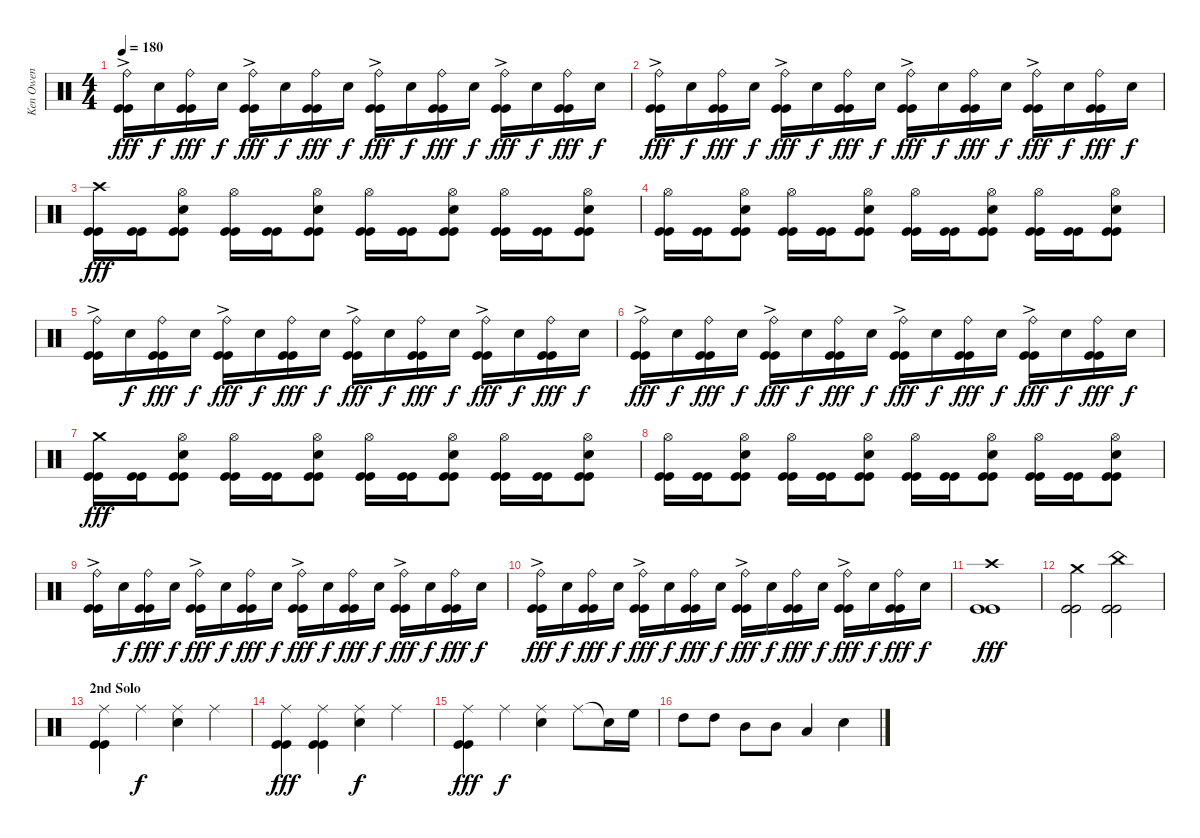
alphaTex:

\track ("Ken Owen" "Ken Owen") {instrument percussion}
\staff {score}
\articulation defaults
\ts (4 4)
\tempo 180
\clef neutral
\ks c
("Ride (bell)"{ac} "Kick (hit)" "Kick (hit)").16{dy fff} "Snare (hit) 2".16{dy f} ("Ride (bell)" "Kick (hit)" "Kick (hit)").16{dy fff} "Snare (hit) 2".16{dy f} ("Ride (bell)"{ac} "Kick (hit)" "Kick (hit)").16{dy fff} "Snare (hit) 2".16{dy f} ("Ride (bell)" "Kick (hit)" "Kick (hit)").16{dy fff} "Snare (hit) 2".16{dy f} ("Ride (bell)"{ac} "Kick (hit)" "Kick (hit)").16{dy fff} "Snare (hit) 2".16{dy f} ("Ride (bell)" "Kick (hit)" "Kick (hit)").16{dy fff} "Snare (hit) 2".16{dy f} ("Ride (bell)"{ac} "Kick (hit)" "Kick (hit)").16{dy fff} "Snare (hit) 2".16{dy f} ("Ride (bell)" "Kick (hit)" "Kick (hit)").16{dy fff} "Snare (hit) 2".16{dy f} |
("Ride (bell)"{ac} "Kick (hit)" "Kick (hit)").16{dy fff} "Snare (hit) 2".16{dy f} ("Ride (bell)" "Kick (hit)" "Kick (hit)").16{dy fff} "Snare (hit) 2".16{dy f} ("Ride (bell)"{ac} "Kick (hit)" "Kick (hit)").16{dy fff} "Snare (hit) 2".16{dy f} ("Ride (bell)" "Kick (hit)" "Kick (hit)").16{dy fff} "Snare (hit) 2".16{dy f} ("Ride (bell)"{ac} "Kick (hit)" "Kick (hit)").16{dy fff} "Snare (hit) 2".16{dy f} ("Ride (bell)" "Kick (hit)" "Kick (hit)").16{dy fff} "Snare (hit) 2".16{dy f} ("Ride (bell)"{ac} "Kick (hit)" "Kick (hit)").16{dy fff} "Snare (hit) 2".16{dy f} ("Ride (bell)" "Kick (hit)" "Kick (hit)").16{dy fff} "Snare (hit) 2".16{dy f} |
("Crash high (hit)" "Kick (hit)" "Kick (hit)").16{dy fff} ("Kick (hit)" "Kick (hit)").16 ("Hi-Hat (open)" "Snare (hit) 2" "Kick (hit)" "Kick (hit)").8 ("Hi-Hat (open)" "Kick (hit)" "Kick (hit)").16 ("Kick (hit)" "Kick (hit)").16 ("Hi-Hat (open)" "Snare (hit) 2" "Kick (hit)" "Kick (hit)").8 ("Hi-Hat (open)" "Kick (hit)" "Kick (hit)").16 ("Kick (hit)" "Kick (hit)").16 ("Hi-Hat (open)" "Snare (hit) 2" "Kick (hit)" "Kick (hit)").8 ("Hi-Hat (open)" "Kick (hit)" "Kick (hit)").16 ("Kick (hit)" "Kick (hit)").16 ("Hi-Hat (open)" "Snare (hit) 2" "Kick (hit)" "Kick (hit)").8 |
("Hi-Hat (open)" "Kick (hit)" "Kick (hit)").16 ("Kick (hit)" "Kick (hit)").16 ("Hi-Hat (open)" "Snare (hit) 2" "Kick (hit)" "Kick (hit)").8 ("Hi-Hat (open)" "Kick (hit)" "Kick (hit)").16 ("Kick (hit)" "Kick (hit)").16 ("Hi-Hat (open)" "Snare (hit) 2" "Kick (hit)" "Kick (hit)").8 ("Hi-Hat (open)" "Kick (hit)" "Kick (hit)").16 ("Kick (hit)" "Kick (hit)").16 ("Hi-Hat (open)" "Snare (hit) 2" "Kick (hit)" "Kick (hit)").8 ("Hi-Hat (open)" "Kick (hit)" "Kick (hit)").16 ("Kick (hit)" "Kick (hit)").16 ("Hi-Hat (open)" "Snare (hit) 2" "Kick (hit)" "Kick (hit)").8 |
("Ride (bell)"{ac} "Kick (hit)" "Kick (hit)").16 "Snare (hit) 2".16{dy f} ("Ride (bell)" "Kick (hit)" "Kick (hit)").16{dy fff} "Snare (hit) 2".16{dy f} ("Ride (bell)"{ac} "Kick (hit)" "Kick (hit)").16{dy fff} "Snare (hit) 2".16{dy f} ("Ride (bell)" "Kick (hit)" "Kick (hit)").16{dy fff} "Snare (hit) 2".16{dy f} ("Ride (bell)"{ac} "Kick (hit)" "Kick (hit)").16{dy fff} "Snare (hit) 2".16{dy f} ("Ride (bell)" "Kick (hit)" "Kick (hit)").16{dy fff} "Snare (hit) 2".16{dy f} ("Ride (bell)"{ac} "Kick (hit)" "Kick (hit)").16{dy fff} "Snare (hit) 2".16{dy f} ("Ride (bell)" "Kick (hit)" "Kick (hit)").16{dy fff} "Snare (hit) 2".16{dy f} |
("Ride (bell)"{ac} "Kick (hit)" "Kick (hit)").16{dy fff} "Snare (hit) 2".16{dy f} ("Ride (bell)" "Kick (hit)" "Kick (hit)").16{dy fff} "Snare (hit) 2".16{dy f} ("Ride (bell)"{ac} "Kick (hit)" "Kick (hit)").16{dy fff} "Snare (hit) 2".16{dy f} ("Ride (bell)" "Kick (hit)" "Kick (hit)").16{dy fff} "Snare (hit) 2".16{dy f} ("Ride (bell)"{ac} "Kick (hit)" "Kick (hit)").16{dy fff} "Snare (hit) 2".16{dy f} ("Ride (bell)" "Kick (hit)" "Kick (hit)").16{dy fff} "Snare (hit) 2".16{dy f} ("Ride (bell)"{ac} "Kick (hit)" "Kick (hit)").16{dy fff} "Snare (hit) 2".16{dy f} ("Ride (bell)" "Kick (hit)" "Kick (hit)").16{dy fff} "Snare (hit) 2".16{dy f} |
("Crash medium (hit)" "Kick (hit)" "Kick (hit)").16{dy fff} ("Kick (hit)" "Kick (hit)").16 ("Hi-Hat (open)" "Snare (hit) 2" "Kick (hit)" "Kick (hit)").8 ("Hi-Hat (open)" "Kick (hit)" "Kick (hit)").16 ("Kick (hit)" "Kick (hit)").16 ("Hi-Hat (open)" "Snare (hit) 2" "Kick (hit)" "Kick (hit)").8 ("Hi-Hat (open)" "Kick (hit)" "Kick (hit)").16 ("Kick (hit)" "Kick (hit)").16 ("Hi-Hat (open)" "Snare (hit) 2" "Kick (hit)" "Kick (hit)").8 ("Hi-Hat (open)" "Kick (hit)" "Kick (hit)").16 ("Kick (hit)" "Kick (hit)").16 ("Hi-Hat (open)" "Snare (hit) 2" "Kick (hit)" "Kick (hit)").8 |
("Hi-Hat (open)" "Kick (hit)" "Kick (hit)").16 ("Kick (hit)" "Kick (hit)").16 ("Hi-Hat (open)" "Snare (hit) 2" "Kick (hit)" "Kick (hit)").8 ("Hi-Hat (open)" "Kick (hit)" "Kick (hit)").16 ("Kick (hit)" "Kick (hit)").16 ("Hi-Hat (open)" "Snare (hit) 2" "Kick (hit)" "Kick (hit)").8 ("Hi-Hat (open)" "Kick (hit)" "Kick (hit)").16 ("Kick (hit)" "Kick (hit)").16 ("Hi-Hat (open)" "Snare (hit) 2" "Kick (hit)" "Kick (hit)").8 ("Hi-Hat (open)" "Kick (hit)" "Kick (hit)").16 ("Kick (hit)" "Kick (hit)").16 ("Hi-Hat (open)" "Snare (hit) 2" "Kick (hit)" "Kick (hit)").8 |
("Ride (bell)"{ac} "Kick (hit)" "Kick (hit)").16 "Snare (hit) 2".16{dy f} ("Ride (bell)" "Kick (hit)" "Kick (hit)").16{dy fff} "Snare (hit) 2".16{dy f} ("Ride (bell)"{ac} "Kick (hit)" "Kick (hit)").16{dy fff} "Snare (hit) 2".16{dy f} ("Ride (bell)" "Kick (hit)" "Kick (hit)").16{dy fff} "Snare (hit) 2".16{dy f} ("Ride (bell)"{ac} "Kick (hit)" "Kick (hit)").16{dy fff} "Snare (hit) 2".16{dy f} ("Ride (bell)" "Kick (hit)" "Kick (hit)").16{dy fff} "Snare (hit) 2".16{dy f} ("Ride (bell)"{ac} "Kick (hit)" "Kick (hit)").16{dy fff} "Snare (hit) 2".16{dy f} ("Ride (bell)" "Kick (hit)" "Kick (hit)").16{dy fff} "Snare (hit) 2".16{dy f} |
("Ride (bell)"{ac} "Kick (hit)" "Kick (hit)").16{dy fff} "Snare (hit) 2".16{dy f} ("Ride (bell)" "Kick (hit)" "Kick (hit)").16{dy fff} "Snare (hit) 2".16{dy f} ("Ride (bell)"{ac} "Kick (hit)" "Kick (hit)").16{dy fff} "Snare (hit) 2".16{dy f} ("Ride (bell)" "Kick (hit)" "Kick (hit)").16{dy fff} "Snare (hit) 2".16{dy f} ("Ride (bell)"{ac} "Kick (hit)" "Kick (hit)").16{dy fff} "Snare (hit) 2".16{dy f} ("Ride (bell)" "Kick (hit)" "Kick (hit)").16{dy fff} "Snare (hit) 2".16{dy f} ("Ride (bell)"{ac} "Kick (hit)" "Kick (hit)").16{dy fff} "Snare (hit) 2".16{dy f} ("Ride (bell)" "Kick (hit)" "Kick (hit)").16{dy fff} "Snare (hit) 2".16{dy f} |
("Crash high (hit)" "Kick (hit)" "Kick (hit)").1{dy fff} |
("Crash medium (hit)" "Kick (hit)" "Kick (hit)").2 ("China (hit)" "Kick (hit)" "Kick (hit)").2 |
\section ("" "2nd Solo")
("Ride (middle)" "Kick (hit)" "Kick (hit)").4 "Ride (middle)".4{dy f} ("Ride (middle)" "Snare (hit) 2").4 "Ride (middle)".4 |
("Ride (middle)" "Kick (hit)" "Kick (hit)").4{dy fff} ("Ride (middle)" "Kick (hit)" "Kick (hit)").4 ("Ride (middle)" "Snare (hit) 2").4{dy f} "Ride (middle)".4 |
("Ride (middle)" "Kick (hit)" "Kick (hit)").4{dy fff} "Ride (middle)".4{dy f} ("Ride (middle)" "Snare (hit) 2").4 "Ride (middle)".8 "Snare (hit)"{t}.16 "High Floor Tom (hit)".16 |
"High Tom (hit)".8 "High Tom (hit)".8 "Mid Tom (hit)".8 "Mid Tom (hit)".8 "Low Tom (hit)".4 "Snare (hit) 2".4
